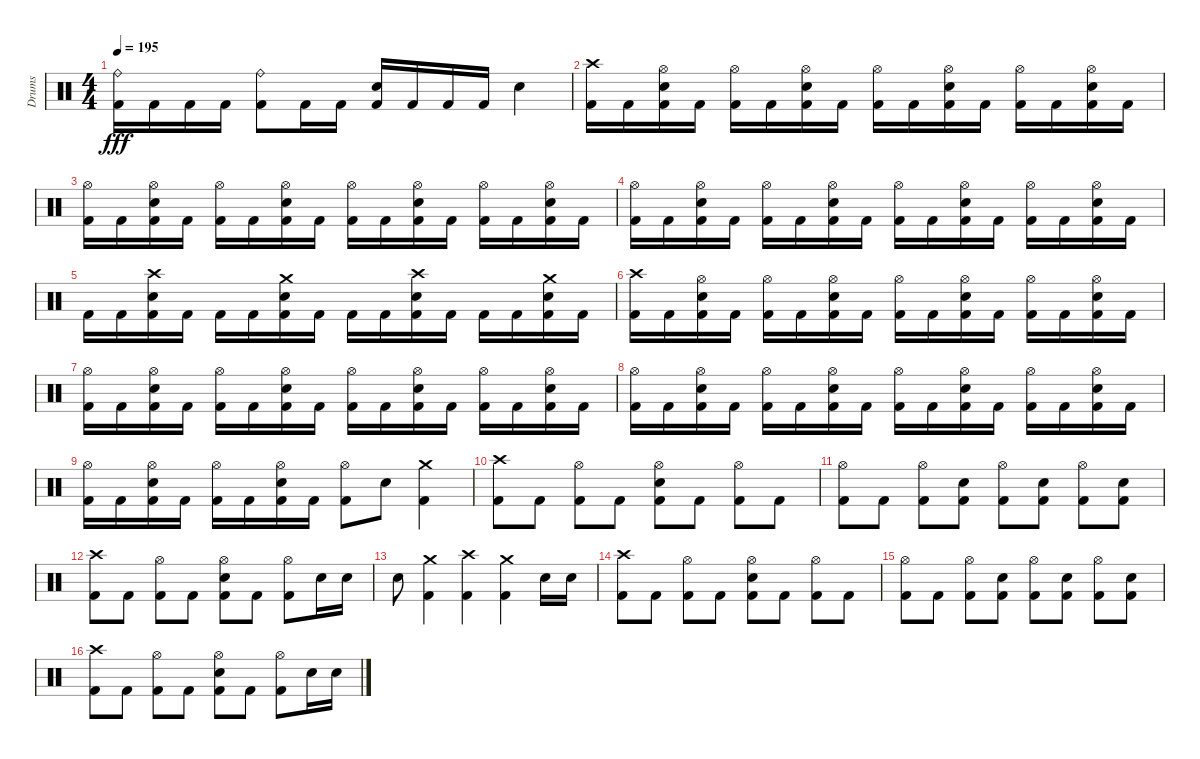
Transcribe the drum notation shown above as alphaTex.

\track ("Drums" "Drums") {instrument percussion}
\staff {score}
\articulation defaults
\ts (4 4)
\tempo 195
\clef neutral
\ks c
("Kick (hit) 2" "Ride (bell)").16{dy fff} "Kick (hit) 2".16 "Kick (hit) 2".16 "Kick (hit) 2".16 ("Kick (hit) 2" "Ride (bell)").8 "Kick (hit) 2".16 "Kick (hit) 2".16 ("Metronome (bell)" "Kick (hit) 2").16 "Kick (hit) 2".16 "Kick (hit) 2".16 "Kick (hit) 2".16 "Metronome (bell)".4 |
("Kick (hit) 2" "Crash high (hit)").16 "Kick (hit) 2".16 ("Metronome (bell)" "Kick (hit) 2" "Hi-Hat (open)").16 "Kick (hit) 2".16 ("Kick (hit) 2" "Hi-Hat (open)").16 "Kick (hit) 2".16 ("Metronome (bell)" "Kick (hit) 2" "Hi-Hat (open)").16 "Kick (hit) 2".16 ("Kick (hit) 2" "Hi-Hat (open)").16 "Kick (hit) 2".16 ("Metronome (bell)" "Kick (hit) 2" "Hi-Hat (open)").16 "Kick (hit) 2".16 ("Kick (hit) 2" "Hi-Hat (open)").16 "Kick (hit) 2".16 ("Metronome (bell)" "Kick (hit) 2" "Hi-Hat (open)").16 "Kick (hit) 2".16 |
("Kick (hit) 2" "Hi-Hat (open)").16 "Kick (hit) 2".16 ("Metronome (bell)" "Kick (hit) 2" "Hi-Hat (open)").16 "Kick (hit) 2".16 ("Kick (hit) 2" "Hi-Hat (open)").16 "Kick (hit) 2".16 ("Metronome (bell)" "Kick (hit) 2" "Hi-Hat (open)").16 "Kick (hit) 2".16 ("Kick (hit) 2" "Hi-Hat (open)").16 "Kick (hit) 2".16 ("Metronome (bell)" "Kick (hit) 2" "Hi-Hat (open)").16 "Kick (hit) 2".16 ("Kick (hit) 2" "Hi-Hat (open)").16 "Kick (hit) 2".16 ("Metronome (bell)" "Kick (hit) 2" "Hi-Hat (open)").16 "Kick (hit) 2".16 |
("Kick (hit) 2" "Hi-Hat (open)").16 "Kick (hit) 2".16 ("Metronome (bell)" "Kick (hit) 2" "Hi-Hat (open)").16 "Kick (hit) 2".16 ("Kick (hit) 2" "Hi-Hat (open)").16 "Kick (hit) 2".16 ("Metronome (bell)" "Kick (hit) 2" "Hi-Hat (open)").16 "Kick (hit) 2".16 ("Kick (hit) 2" "Hi-Hat (open)").16 "Kick (hit) 2".16 ("Metronome (bell)" "Kick (hit) 2" "Hi-Hat (open)").16 "Kick (hit) 2".16 ("Kick (hit) 2" "Hi-Hat (open)").16 "Kick (hit) 2".16 ("Metronome (bell)" "Kick (hit) 2" "Hi-Hat (open)").16 "Kick (hit) 2".16 |
"Kick (hit) 2".16 "Kick (hit) 2".16 ("Metronome (bell)" "Kick (hit) 2" "Crash high (hit)").16 "Kick (hit) 2".16 "Kick (hit) 2".16 "Kick (hit) 2".16 ("Metronome (bell)" "Kick (hit) 2" "Crash medium (hit)").16 "Kick (hit) 2".16 "Kick (hit) 2".16 "Kick (hit) 2".16 ("Metronome (bell)" "Kick (hit) 2" "Crash high (hit)").16 "Kick (hit) 2".16 "Kick (hit) 2".16 "Kick (hit) 2".16 ("Metronome (bell)" "Kick (hit) 2" "Crash medium (hit)").16 "Kick (hit) 2".16 |
("Kick (hit) 2" "Crash high (hit)").16 "Kick (hit) 2".16 ("Metronome (bell)" "Kick (hit) 2" "Hi-Hat (open)").16 "Kick (hit) 2".16 ("Kick (hit) 2" "Hi-Hat (open)").16 "Kick (hit) 2".16 ("Metronome (bell)" "Kick (hit) 2" "Hi-Hat (open)").16 "Kick (hit) 2".16 ("Kick (hit) 2" "Hi-Hat (open)").16 "Kick (hit) 2".16 ("Metronome (bell)" "Kick (hit) 2" "Hi-Hat (open)").16 "Kick (hit) 2".16 ("Kick (hit) 2" "Hi-Hat (open)").16 "Kick (hit) 2".16 ("Metronome (bell)" "Kick (hit) 2" "Hi-Hat (open)").16 "Kick (hit) 2".16 |
("Kick (hit) 2" "Hi-Hat (open)").16 "Kick (hit) 2".16 ("Metronome (bell)" "Kick (hit) 2" "Hi-Hat (open)").16 "Kick (hit) 2".16 ("Kick (hit) 2" "Hi-Hat (open)").16 "Kick (hit) 2".16 ("Metronome (bell)" "Kick (hit) 2" "Hi-Hat (open)").16 "Kick (hit) 2".16 ("Kick (hit) 2" "Hi-Hat (open)").16 "Kick (hit) 2".16 ("Metronome (bell)" "Kick (hit) 2" "Hi-Hat (open)").16 "Kick (hit) 2".16 ("Kick (hit) 2" "Hi-Hat (open)").16 "Kick (hit) 2".16 ("Metronome (bell)" "Kick (hit) 2" "Hi-Hat (open)").16 "Kick (hit) 2".16 |
("Kick (hit) 2" "Hi-Hat (open)").16 "Kick (hit) 2".16 ("Metronome (bell)" "Kick (hit) 2" "Hi-Hat (open)").16 "Kick (hit) 2".16 ("Kick (hit) 2" "Hi-Hat (open)").16 "Kick (hit) 2".16 ("Metronome (bell)" "Kick (hit) 2" "Hi-Hat (open)").16 "Kick (hit) 2".16 ("Kick (hit) 2" "Hi-Hat (open)").16 "Kick (hit) 2".16 ("Metronome (bell)" "Kick (hit) 2" "Hi-Hat (open)").16 "Kick (hit) 2".16 ("Kick (hit) 2" "Hi-Hat (open)").16 "Kick (hit) 2".16 ("Metronome (bell)" "Kick (hit) 2" "Hi-Hat (open)").16 "Kick (hit) 2".16 |
("Kick (hit) 2" "Hi-Hat (open)").16 "Kick (hit) 2".16 ("Metronome (bell)" "Kick (hit) 2" "Hi-Hat (open)").16 "Kick (hit) 2".16 ("Kick (hit) 2" "Hi-Hat (open)").16 "Kick (hit) 2".16 ("Metronome (bell)" "Kick (hit) 2" "Hi-Hat (open)").16 "Kick (hit) 2".16 ("Kick (hit) 2" "Hi-Hat (open)").8 "Metronome (bell)".8 ("Kick (hit) 2" "Crash medium (hit)").4 |
("Kick (hit) 2" "Crash high (hit)").8 "Kick (hit) 2".8 ("Kick (hit) 2" "Hi-Hat (open)").8 "Kick (hit) 2".8 ("Metronome (bell)" "Kick (hit) 2" "Hi-Hat (open)").8 "Kick (hit) 2".8 ("Kick (hit) 2" "Hi-Hat (open)").8 "Kick (hit) 2".8 |
("Kick (hit) 2" "Hi-Hat (open)").8 "Kick (hit) 2".8 ("Kick (hit) 2" "Hi-Hat (open)").8 ("Metronome (bell)" "Kick (hit) 2").8 ("Kick (hit) 2" "Hi-Hat (open)").8 ("Metronome (bell)" "Kick (hit) 2").8 ("Kick (hit) 2" "Hi-Hat (open)").8 ("Metronome (bell)" "Kick (hit) 2").8 |
("Kick (hit) 2" "Crash high (hit)").8 "Kick (hit) 2".8 ("Kick (hit) 2" "Hi-Hat (open)").8 "Kick (hit) 2".8 ("Metronome (bell)" "Kick (hit) 2" "Hi-Hat (open)").8 "Kick (hit) 2".8 ("Kick (hit) 2" "Hi-Hat (open)").8 "Metronome (bell)".16 "Metronome (bell)".16 |
"Metronome (bell)".8 ("Kick (hit) 2" "Crash medium (hit)").4 ("Kick (hit) 2" "Crash high (hit)").4 ("Kick (hit) 2" "Crash medium (hit)").4 "Metronome (bell)".16 "Metronome (bell)".16 |
("Kick (hit) 2" "Crash high (hit)").8 "Kick (hit) 2".8 ("Kick (hit) 2" "Hi-Hat (open)").8 "Kick (hit) 2".8 ("Metronome (bell)" "Kick (hit) 2" "Hi-Hat (open)").8 "Kick (hit) 2".8 ("Kick (hit) 2" "Hi-Hat (open)").8 "Kick (hit) 2".8 |
("Kick (hit) 2" "Hi-Hat (open)").8 "Kick (hit) 2".8 ("Kick (hit) 2" "Hi-Hat (open)").8 ("Metronome (bell)" "Kick (hit) 2").8 ("Kick (hit) 2" "Hi-Hat (open)").8 ("Metronome (bell)" "Kick (hit) 2").8 ("Kick (hit) 2" "Hi-Hat (open)").8 ("Metronome (bell)" "Kick (hit) 2").8 |
("Kick (hit) 2" "Crash high (hit)").8 "Kick (hit) 2".8 ("Kick (hit) 2" "Hi-Hat (open)").8 "Kick (hit) 2".8 ("Metronome (bell)" "Kick (hit) 2" "Hi-Hat (open)").8 "Kick (hit) 2".8 ("Kick (hit) 2" "Hi-Hat (open)").8 "Metronome (bell)".16 "Metronome (bell)".16
